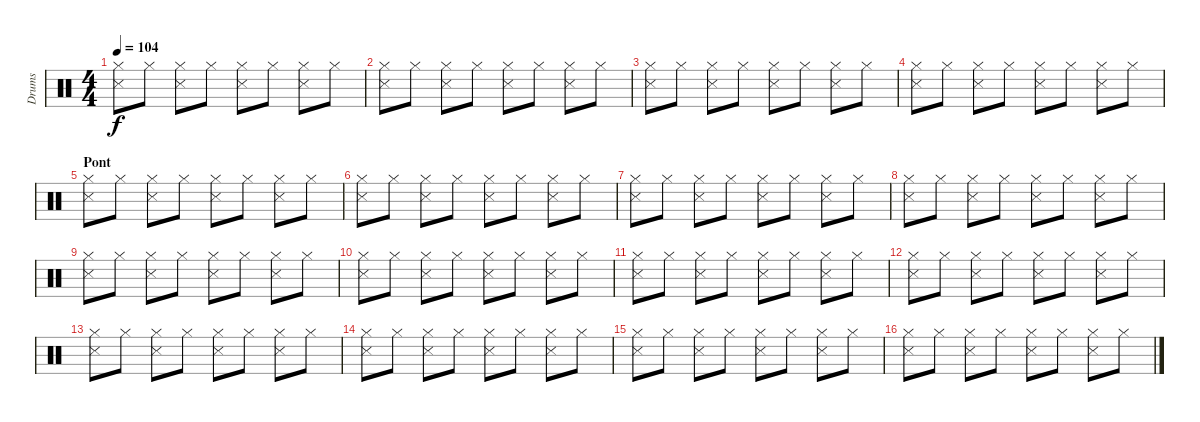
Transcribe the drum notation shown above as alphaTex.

\track ("Drums" "Drums") {instrument percussion}
\staff {score}
\articulation defaults
\ts (4 4)
\tempo 104
\clef neutral
\ks c
("Hi-Hat (closed)" "Snare (side stick) 3").8{dy f} "Hi-Hat (closed)".8 ("Hi-Hat (closed)" "Snare (side stick) 3").8 "Hi-Hat (closed)".8 ("Hi-Hat (closed)" "Snare (side stick) 3").8 "Hi-Hat (closed)".8 ("Hi-Hat (closed)" "Snare (side stick) 3").8 "Hi-Hat (closed)".8 |
("Hi-Hat (closed)" "Snare (side stick) 3").8 "Hi-Hat (closed)".8 ("Hi-Hat (closed)" "Snare (side stick) 3").8 "Hi-Hat (closed)".8 ("Hi-Hat (closed)" "Snare (side stick) 3").8 "Hi-Hat (closed)".8 ("Hi-Hat (closed)" "Snare (side stick) 3").8 "Hi-Hat (closed)".8 |
("Hi-Hat (closed)" "Snare (side stick) 3").8 "Hi-Hat (closed)".8 ("Hi-Hat (closed)" "Snare (side stick) 3").8 "Hi-Hat (closed)".8 ("Hi-Hat (closed)" "Snare (side stick) 3").8 "Hi-Hat (closed)".8 ("Hi-Hat (closed)" "Snare (side stick) 3").8 "Hi-Hat (closed)".8 |
("Hi-Hat (closed)" "Snare (side stick) 3").8 "Hi-Hat (closed)".8 ("Hi-Hat (closed)" "Snare (side stick) 3").8 "Hi-Hat (closed)".8 ("Hi-Hat (closed)" "Snare (side stick) 3").8 "Hi-Hat (closed)".8 ("Hi-Hat (closed)" "Snare (side stick) 3").8 "Hi-Hat (closed)".8 |
\section ("" "Pont")
("Hi-Hat (closed)" "Snare (side stick) 3").8 "Hi-Hat (closed)".8 ("Hi-Hat (closed)" "Snare (side stick) 3").8 "Hi-Hat (closed)".8 ("Hi-Hat (closed)" "Snare (side stick) 3").8 "Hi-Hat (closed)".8 ("Hi-Hat (closed)" "Snare (side stick) 3").8 "Hi-Hat (closed)".8 |
("Hi-Hat (closed)" "Snare (side stick) 3").8 "Hi-Hat (closed)".8 ("Hi-Hat (closed)" "Snare (side stick) 3").8 "Hi-Hat (closed)".8 ("Hi-Hat (closed)" "Snare (side stick) 3").8 "Hi-Hat (closed)".8 ("Hi-Hat (closed)" "Snare (side stick) 3").8 "Hi-Hat (closed)".8 |
("Hi-Hat (closed)" "Snare (side stick) 3").8 "Hi-Hat (closed)".8 ("Hi-Hat (closed)" "Snare (side stick) 3").8 "Hi-Hat (closed)".8 ("Hi-Hat (closed)" "Snare (side stick) 3").8 "Hi-Hat (closed)".8 ("Hi-Hat (closed)" "Snare (side stick) 3").8 "Hi-Hat (closed)".8 |
("Hi-Hat (closed)" "Snare (side stick) 3").8 "Hi-Hat (closed)".8 ("Hi-Hat (closed)" "Snare (side stick) 3").8 "Hi-Hat (closed)".8 ("Hi-Hat (closed)" "Snare (side stick) 3").8 "Hi-Hat (closed)".8 ("Hi-Hat (closed)" "Snare (side stick) 3").8 "Hi-Hat (closed)".8 |
("Hi-Hat (closed)" "Snare (side stick) 3").8 "Hi-Hat (closed)".8 ("Hi-Hat (closed)" "Snare (side stick) 3").8 "Hi-Hat (closed)".8 ("Hi-Hat (closed)" "Snare (side stick) 3").8 "Hi-Hat (closed)".8 ("Hi-Hat (closed)" "Snare (side stick) 3").8 "Hi-Hat (closed)".8 |
("Hi-Hat (closed)" "Snare (side stick) 3").8 "Hi-Hat (closed)".8 ("Hi-Hat (closed)" "Snare (side stick) 3").8 "Hi-Hat (closed)".8 ("Hi-Hat (closed)" "Snare (side stick) 3").8 "Hi-Hat (closed)".8 ("Hi-Hat (closed)" "Snare (side stick) 3").8 "Hi-Hat (closed)".8 |
("Hi-Hat (closed)" "Snare (side stick) 3").8 "Hi-Hat (closed)".8 ("Hi-Hat (closed)" "Snare (side stick) 3").8 "Hi-Hat (closed)".8 ("Hi-Hat (closed)" "Snare (side stick) 3").8 "Hi-Hat (closed)".8 ("Hi-Hat (closed)" "Snare (side stick) 3").8 "Hi-Hat (closed)".8 |
("Hi-Hat (closed)" "Snare (side stick) 3").8 "Hi-Hat (closed)".8 ("Hi-Hat (closed)" "Snare (side stick) 3").8 "Hi-Hat (closed)".8 ("Hi-Hat (closed)" "Snare (side stick) 3").8 "Hi-Hat (closed)".8 ("Hi-Hat (closed)" "Snare (side stick) 3").8 "Hi-Hat (closed)".8 |
("Hi-Hat (closed)" "Snare (side stick) 3").8 "Hi-Hat (closed)".8 ("Hi-Hat (closed)" "Snare (side stick) 3").8 "Hi-Hat (closed)".8 ("Hi-Hat (closed)" "Snare (side stick) 3").8 "Hi-Hat (closed)".8 ("Hi-Hat (closed)" "Snare (side stick) 3").8 "Hi-Hat (closed)".8 |
("Hi-Hat (closed)" "Snare (side stick) 3").8 "Hi-Hat (closed)".8 ("Hi-Hat (closed)" "Snare (side stick) 3").8 "Hi-Hat (closed)".8 ("Hi-Hat (closed)" "Snare (side stick) 3").8 "Hi-Hat (closed)".8 ("Hi-Hat (closed)" "Snare (side stick) 3").8 "Hi-Hat (closed)".8 |
("Hi-Hat (closed)" "Snare (side stick) 3").8 "Hi-Hat (closed)".8 ("Hi-Hat (closed)" "Snare (side stick) 3").8 "Hi-Hat (closed)".8 ("Hi-Hat (closed)" "Snare (side stick) 3").8 "Hi-Hat (closed)".8 ("Hi-Hat (closed)" "Snare (side stick) 3").8 "Hi-Hat (closed)".8 |
("Hi-Hat (closed)" "Snare (side stick) 3").8 "Hi-Hat (closed)".8 ("Hi-Hat (closed)" "Snare (side stick) 3").8 "Hi-Hat (closed)".8 ("Hi-Hat (closed)" "Snare (side stick) 3").8 "Hi-Hat (closed)".8 ("Hi-Hat (closed)" "Snare (side stick) 3").8 "Hi-Hat (closed)".8
